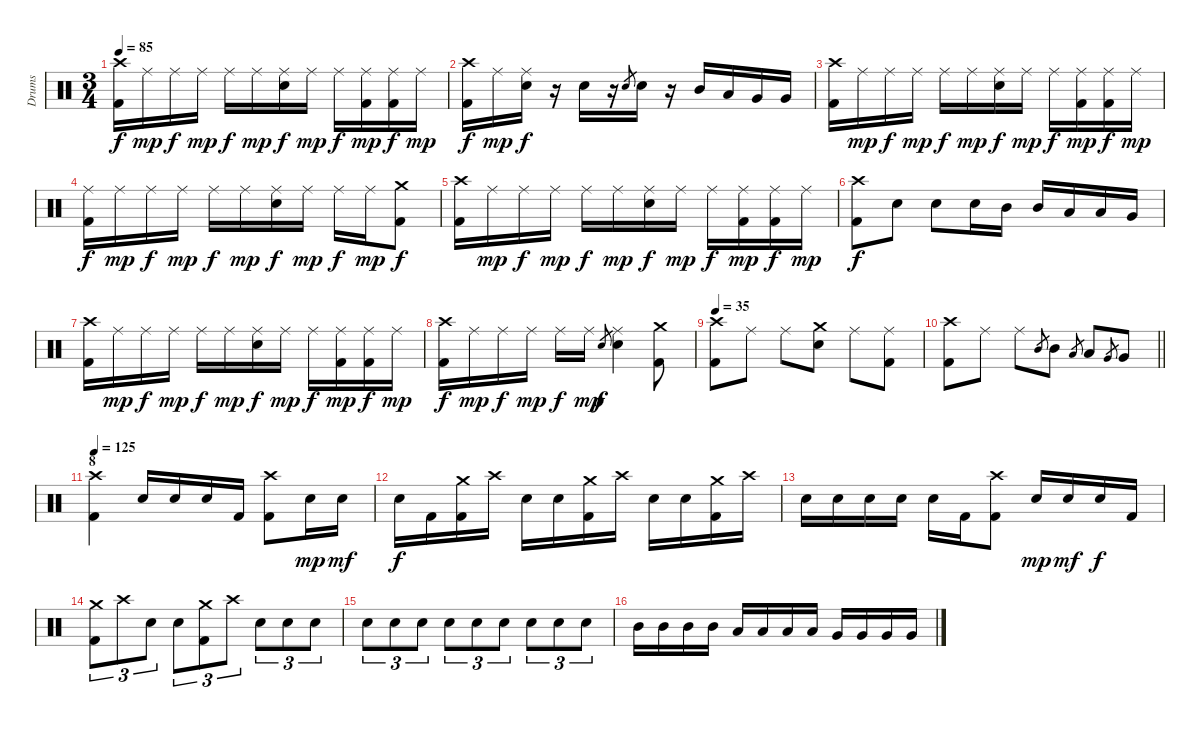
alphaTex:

\track ("Drums" "Drums") {instrument percussion}
\staff {score}
\articulation defaults
\ts (3 4)
\tempo 85
\clef neutral
\ks c
("Crash high (hit)" "Kick (hit) 2").16{dy f} "Ride (middle)".16{dy mp} "Ride (middle)".16{dy f} "Ride (middle)".16{dy mp} "Ride (middle)".16{dy f} "Ride (middle)".16{dy mp} ("Ride (middle)" "Electric Snare (hit)").16{dy f} "Ride (middle)".16{dy mp} "Ride (middle)".16{dy f} ("Ride (middle)" "Kick (hit) 2").16{dy mp} ("Ride (middle)" "Kick (hit) 2").16{dy f} "Ride (middle)".16{dy mp} |
("Crash high (hit)" "Kick (hit) 2").16{dy f} "Ride (middle)".16{dy mp} ("Ride (middle)" "Electric Snare (hit)").16{dy f} r.16 "Electric Snare (hit)".16 r.16 "Electric Snare (hit)".8{gr} "Electric Snare (hit)".16 r.16 "Mid Tom (hit)".16 "Low Tom (hit)".16 "Very Low Tom (hit)".16 "Very Low Tom (hit)".16 |
("Crash high (hit)" "Kick (hit) 2").16 "Ride (middle)".16{dy mp} "Ride (middle)".16{dy f} "Ride (middle)".16{dy mp} "Ride (middle)".16{dy f} "Ride (middle)".16{dy mp} ("Ride (middle)" "Electric Snare (hit)").16{dy f} "Ride (middle)".16{dy mp} "Ride (middle)".16{dy f} ("Ride (middle)" "Kick (hit) 2").16{dy mp} ("Ride (middle)" "Kick (hit) 2").16{dy f} "Ride (middle)".16{dy mp} |
("Ride (middle)" "Kick (hit) 2").16{dy f} "Ride (middle)".16{dy mp} "Ride (middle)".16{dy f} "Ride (middle)".16{dy mp} "Ride (middle)".16{dy f} "Ride (middle)".16{dy mp} ("Ride (middle)" "Electric Snare (hit)").16{dy f} "Ride (middle)".16{dy mp} "Ride (middle)".16{dy f} "Ride (middle)".16{dy mp} ("Crash medium (hit)" "Kick (hit) 2").8{dy f} |
("Crash high (hit)" "Kick (hit) 2").16 "Ride (middle)".16{dy mp} "Ride (middle)".16{dy f} "Ride (middle)".16{dy mp} "Ride (middle)".16{dy f} "Ride (middle)".16{dy mp} ("Ride (middle)" "Electric Snare (hit)").16{dy f} "Ride (middle)".16{dy mp} "Ride (middle)".16{dy f} ("Ride (middle)" "Kick (hit) 2").16{dy mp} ("Ride (middle)" "Kick (hit) 2").16{dy f} "Ride (middle)".16{dy mp} |
("Crash high (hit)" "Kick (hit) 2").8{dy f} "Electric Snare (hit)".8 "Electric Snare (hit)".8 "Electric Snare (hit)".16 "Mid Tom (hit)".16 "Mid Tom (hit)".16 "Low Tom (hit)".16 "Low Tom (hit)".16 "Very Low Tom (hit)".16 |
("Crash high (hit)" "Kick (hit) 2").16 "Ride (middle)".16{dy mp} "Ride (middle)".16{dy f} "Ride (middle)".16{dy mp} "Ride (middle)".16{dy f} "Ride (middle)".16{dy mp} ("Ride (middle)" "Electric Snare (hit)").16{dy f} "Ride (middle)".16{dy mp} "Ride (middle)".16{dy f} ("Ride (middle)" "Kick (hit) 2").16{dy mp} ("Ride (middle)" "Kick (hit) 2").16{dy f} "Ride (middle)".16{dy mp} |
("Crash high (hit)" "Kick (hit) 2").16{dy f} "Ride (middle)".16{dy mp} "Ride (middle)".16{dy f} "Ride (middle)".16{dy mp} "Ride (middle)".16{dy f} "Ride (middle)".16{dy mp} "Electric Snare (hit)".8{gr dy f} ("Ride (middle)" "Electric Snare (hit)").4 ("Crash medium (hit)" "Kick (hit) 2").8 |
\tempo 35
("Crash high (hit)" "Kick (hit) 2").8 "Ride (middle)".8 "Ride (middle)".8 ("Crash medium (hit)" "Electric Snare (hit)").8 "Ride (middle)".8 ("Ride (middle)" "Kick (hit) 2").8 |
\barLineRight lightlight
("Crash high (hit)" "Kick (hit) 2").8 "Ride (middle)".8 "Ride (middle)".8 "Mid Tom (hit)".8{gr} "Mid Tom (hit)".8 "Low Tom (hit)".8{gr} "Low Tom (hit)".8 "Very Low Tom (hit)".8{gr} "Very Low Tom (hit)".8 |
\section ("" "8")
\tempo 125
("Crash high (hit)" "Kick (hit) 2").4 "Electric Snare (hit)".16 "Electric Snare (hit)".16 "Electric Snare (hit)".16 "Kick (hit) 2".16 ("Crash high (hit)" "Kick (hit) 2").8 "Electric Snare (hit)".16{dy mp} "Electric Snare (hit)".16{dy mf} |
"Electric Snare (hit)".16{dy f} "Kick (hit) 2".16 ("Crash medium (hit)" "Kick (hit) 2").16 "Crash high (hit)".16 "Electric Snare (hit)".16 "Electric Snare (hit)".16 ("Crash medium (hit)" "Kick (hit) 2").16 "Crash high (hit)".16 "Electric Snare (hit)".16 "Electric Snare (hit)".16 ("Crash medium (hit)" "Kick (hit) 2").16 "Crash high (hit)".16 |
"Electric Snare (hit)".16 "Electric Snare (hit)".16 "Electric Snare (hit)".16 "Electric Snare (hit)".16 "Electric Snare (hit)".16 "Kick (hit) 2".16 ("Crash high (hit)" "Kick (hit) 2").8 "Electric Snare (hit)".16{dy mp} "Electric Snare (hit)".16{dy mf} "Electric Snare (hit)".16{dy f} "Kick (hit) 2".16 |
("Crash medium (hit)" "Kick (hit) 2").8{tu (3 2)} "Crash high (hit)".8{tu (3 2)} "Electric Snare (hit)".8{tu (3 2)} "Electric Snare (hit)".8{tu (3 2)} ("Crash medium (hit)" "Kick (hit) 2").8{tu (3 2)} "Crash high (hit)".8{tu (3 2)} "Electric Snare (hit)".8{tu (3 2)} "Electric Snare (hit)".8{tu (3 2)} "Electric Snare (hit)".8{tu (3 2)} |
"Electric Snare (hit)".8{tu (3 2)} "Electric Snare (hit)".8{tu (3 2)} "Electric Snare (hit)".8{tu (3 2)} "Electric Snare (hit)".8{tu (3 2)} "Electric Snare (hit)".8{tu (3 2)} "Electric Snare (hit)".8{tu (3 2)} "Electric Snare (hit)".8{tu (3 2)} "Electric Snare (hit)".8{tu (3 2)} "Electric Snare (hit)".8{tu (3 2)} |
"Mid Tom (hit)".16 "Mid Tom (hit)".16 "Mid Tom (hit)".16 "Mid Tom (hit)".16 "Low Tom (hit)".16 "Low Tom (hit)".16 "Low Tom (hit)".16 "Low Tom (hit)".16 "Very Low Tom (hit)".16 "Very Low Tom (hit)".16 "Very Low Tom (hit)".16 "Very Low Tom (hit)".16
